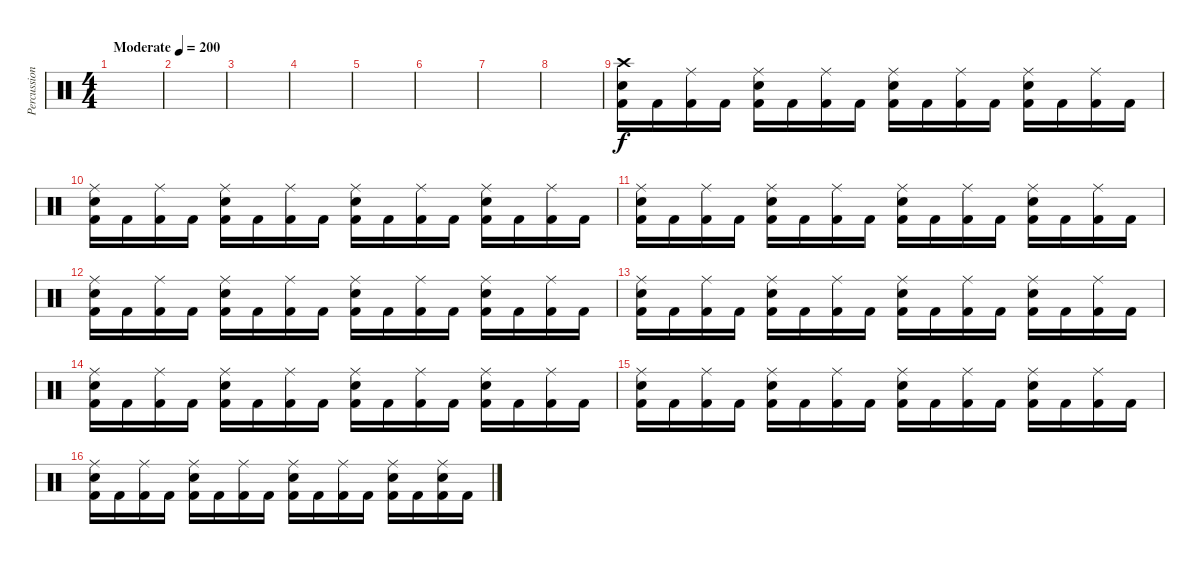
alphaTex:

\track ("Percussions" "Percussion") {instrument percussion}
\staff {score}
\articulation defaults
\ts (4 4)
\tempo (200 "Moderate")
\clef neutral
\ks c
|
|
|
|
|
|
|
|
("Crash high (hit)" "Electric Snare (hit)" "Kick (hit) 2").16 "Kick (hit) 2".16 ("Ride (middle)" "Kick (hit) 2").16 "Kick (hit) 2".16 ("Ride (middle)" "Electric Snare (hit)" "Kick (hit) 2").16 "Kick (hit) 2".16 ("Ride (middle)" "Kick (hit) 2").16 "Kick (hit) 2".16 ("Ride (middle)" "Electric Snare (hit)" "Kick (hit) 2").16 "Kick (hit) 2".16 ("Ride (middle)" "Kick (hit) 2").16 "Kick (hit) 2".16 ("Ride (middle)" "Electric Snare (hit)" "Kick (hit) 2").16 "Kick (hit) 2".16 ("Ride (middle)" "Kick (hit) 2").16 "Kick (hit) 2".16 |
("Ride (middle)" "Electric Snare (hit)" "Kick (hit) 2").16 "Kick (hit) 2".16 ("Ride (middle)" "Kick (hit) 2").16 "Kick (hit) 2".16 ("Ride (middle)" "Electric Snare (hit)" "Kick (hit) 2").16 "Kick (hit) 2".16 ("Ride (middle)" "Kick (hit) 2").16 "Kick (hit) 2".16 ("Ride (middle)" "Electric Snare (hit)" "Kick (hit) 2").16 "Kick (hit) 2".16 ("Ride (middle)" "Kick (hit) 2").16 "Kick (hit) 2".16 ("Ride (middle)" "Electric Snare (hit)" "Kick (hit) 2").16 "Kick (hit) 2".16 ("Ride (middle)" "Kick (hit) 2").16 "Kick (hit) 2".16 |
("Ride (middle)" "Electric Snare (hit)" "Kick (hit) 2").16 "Kick (hit) 2".16 ("Ride (middle)" "Kick (hit) 2").16 "Kick (hit) 2".16 ("Ride (middle)" "Electric Snare (hit)" "Kick (hit) 2").16 "Kick (hit) 2".16 ("Ride (middle)" "Kick (hit) 2").16 "Kick (hit) 2".16 ("Ride (middle)" "Electric Snare (hit)" "Kick (hit) 2").16 "Kick (hit) 2".16 ("Ride (middle)" "Kick (hit) 2").16 "Kick (hit) 2".16 ("Ride (middle)" "Electric Snare (hit)" "Kick (hit) 2").16 "Kick (hit) 2".16 ("Ride (middle)" "Kick (hit) 2").16 "Kick (hit) 2".16 |
("Ride (middle)" "Electric Snare (hit)" "Kick (hit) 2").16 "Kick (hit) 2".16 ("Ride (middle)" "Kick (hit) 2").16 "Kick (hit) 2".16 ("Ride (middle)" "Electric Snare (hit)" "Kick (hit) 2").16 "Kick (hit) 2".16 ("Ride (middle)" "Kick (hit) 2").16 "Kick (hit) 2".16 ("Ride (middle)" "Electric Snare (hit)" "Kick (hit) 2").16 "Kick (hit) 2".16 ("Ride (middle)" "Kick (hit) 2").16 "Kick (hit) 2".16 ("Ride (middle)" "Electric Snare (hit)" "Kick (hit) 2").16 "Kick (hit) 2".16 ("Ride (middle)" "Kick (hit) 2").16 "Kick (hit) 2".16 |
("Ride (middle)" "Electric Snare (hit)" "Kick (hit) 2").16 "Kick (hit) 2".16 ("Ride (middle)" "Kick (hit) 2").16 "Kick (hit) 2".16 ("Ride (middle)" "Electric Snare (hit)" "Kick (hit) 2").16 "Kick (hit) 2".16 ("Ride (middle)" "Kick (hit) 2").16 "Kick (hit) 2".16 ("Ride (middle)" "Electric Snare (hit)" "Kick (hit) 2").16 "Kick (hit) 2".16 ("Ride (middle)" "Kick (hit) 2").16 "Kick (hit) 2".16 ("Ride (middle)" "Electric Snare (hit)" "Kick (hit) 2").16 "Kick (hit) 2".16 ("Ride (middle)" "Kick (hit) 2").16 "Kick (hit) 2".16 |
("Ride (middle)" "Electric Snare (hit)" "Kick (hit) 2").16 "Kick (hit) 2".16 ("Ride (middle)" "Kick (hit) 2").16 "Kick (hit) 2".16 ("Ride (middle)" "Electric Snare (hit)" "Kick (hit) 2").16 "Kick (hit) 2".16 ("Ride (middle)" "Kick (hit) 2").16 "Kick (hit) 2".16 ("Ride (middle)" "Electric Snare (hit)" "Kick (hit) 2").16 "Kick (hit) 2".16 ("Ride (middle)" "Kick (hit) 2").16 "Kick (hit) 2".16 ("Ride (middle)" "Electric Snare (hit)" "Kick (hit) 2").16 "Kick (hit) 2".16 ("Ride (middle)" "Kick (hit) 2").16 "Kick (hit) 2".16 |
("Ride (middle)" "Electric Snare (hit)" "Kick (hit) 2").16 "Kick (hit) 2".16 ("Ride (middle)" "Kick (hit) 2").16 "Kick (hit) 2".16 ("Ride (middle)" "Electric Snare (hit)" "Kick (hit) 2").16 "Kick (hit) 2".16 ("Ride (middle)" "Kick (hit) 2").16 "Kick (hit) 2".16 ("Ride (middle)" "Electric Snare (hit)" "Kick (hit) 2").16 "Kick (hit) 2".16 ("Ride (middle)" "Kick (hit) 2").16 "Kick (hit) 2".16 ("Ride (middle)" "Electric Snare (hit)" "Kick (hit) 2").16 "Kick (hit) 2".16 ("Ride (middle)" "Kick (hit) 2").16 "Kick (hit) 2".16 |
("Ride (middle)" "Electric Snare (hit)" "Kick (hit) 2").16 "Kick (hit) 2".16 ("Ride (middle)" "Kick (hit) 2").16 "Kick (hit) 2".16 ("Ride (middle)" "Electric Snare (hit)" "Kick (hit) 2").16 "Kick (hit) 2".16 ("Ride (middle)" "Kick (hit) 2").16 "Kick (hit) 2".16 ("Ride (middle)" "Electric Snare (hit)" "Kick (hit) 2").16 "Kick (hit) 2".16 ("Ride (middle)" "Kick (hit) 2").16 "Kick (hit) 2".16 ("Ride (middle)" "Electric Snare (hit)" "Kick (hit) 2").16 "Kick (hit) 2".16 ("Ride (middle)" "Electric Snare (hit)" "Kick (hit) 2").16 "Kick (hit) 2".16
